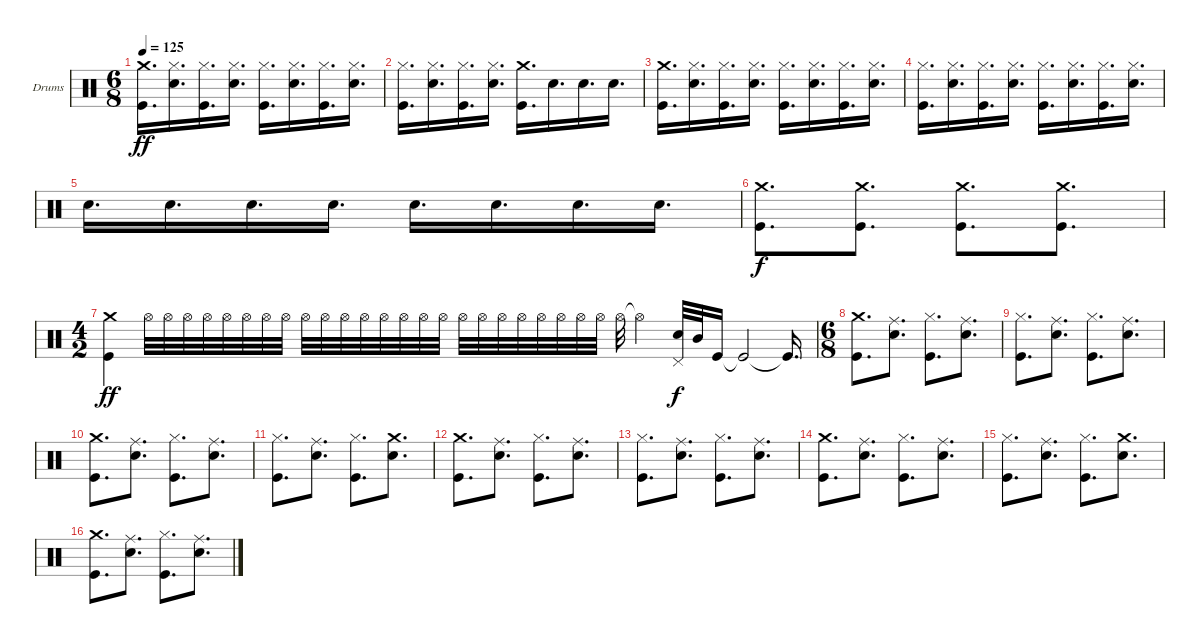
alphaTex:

\defaultSystemsLayout 4
\bracketExtendMode groupsimilarinstruments
\firstSystemTrackNameOrientation horizontal
\otherSystemsTrackNameOrientation horizontal
\track ("Drumkit" "Drums") {instrument percussion}
\staff {score}
\articulation defaults
\ts (6 8)
\tempo 125
\clef neutral
\ks c
("Kick (hit)" "Crash medium (hit)").16{d dy ff} ("Snare (hit) 2" "Hi-Hat (closed)").16{d} ("Kick (hit)" "Hi-Hat (closed)").16{d} ("Snare (hit) 2" "Hi-Hat (closed)").16{d} ("Kick (hit)" "Hi-Hat (closed)").16{d} ("Snare (hit) 2" "Hi-Hat (closed)").16{d} ("Kick (hit)" "Hi-Hat (closed)").16{d} ("Snare (hit) 2" "Hi-Hat (closed)").16{d} |
("Kick (hit)" "Hi-Hat (closed)").16{d} ("Snare (hit) 2" "Hi-Hat (closed)").16{d} ("Kick (hit)" "Hi-Hat (closed)").16{d} ("Snare (hit) 2" "Hi-Hat (closed)").16{d} ("Kick (hit)" "Crash medium (hit)").16{d} "Snare (hit) 2".16{d} "Snare (hit) 2".16{d} "Snare (hit) 2".16{d} |
("Kick (hit)" "Crash medium (hit)").16{d} ("Snare (hit) 2" "Hi-Hat (closed)").16{d} ("Kick (hit)" "Hi-Hat (closed)").16{d} ("Snare (hit) 2" "Hi-Hat (closed)").16{d} ("Kick (hit)" "Hi-Hat (closed)").16{d} ("Snare (hit) 2" "Hi-Hat (closed)").16{d} ("Kick (hit)" "Hi-Hat (closed)").16{d} ("Snare (hit) 2" "Hi-Hat (closed)").16{d} |
("Kick (hit)" "Hi-Hat (closed)").16{d} ("Snare (hit) 2" "Hi-Hat (closed)").16{d} ("Kick (hit)" "Hi-Hat (closed)").16{d} ("Snare (hit) 2" "Hi-Hat (closed)").16{d} ("Kick (hit)" "Hi-Hat (closed)").16{d} ("Snare (hit) 2" "Hi-Hat (closed)").16{d} ("Kick (hit)" "Hi-Hat (closed)").16{d} ("Snare (hit) 2" "Hi-Hat (closed)").16{d} |
"Snare (hit) 2".16{d} "Snare (hit) 2".16{d} "Snare (hit) 2".16{d} "Snare (hit) 2".16{d} "Snare (hit) 2".16{d} "Snare (hit) 2".16{d} "Snare (hit) 2".16{d} "Snare (hit) 2".16{d} |
("Kick (hit)" "Crash medium (hit)").8{d dy f} ("Kick (hit)" "Crash medium (hit)").8{d} ("Kick (hit)" "Crash medium (hit)").8{d} ("Kick (hit)" "Crash medium (hit)").8{d} |
\ts (4 2)
("Kick (hit)" "Crash medium (hit)").4{dy ff} "Hi-Hat (open)".32 "Hi-Hat (open)".32 "Hi-Hat (open)".32 "Hi-Hat (open)".32 "Hi-Hat (open)".32 "Hi-Hat (open)".32 "Hi-Hat (open)".32 "Hi-Hat (open)".32 "Hi-Hat (open)".32 "Hi-Hat (open)".32 "Hi-Hat (open)".32 "Hi-Hat (open)".32 "Hi-Hat (open)".32 "Hi-Hat (open)".32 "Hi-Hat (open)".32 "Hi-Hat (open)".32 "Hi-Hat (open)".32 "Hi-Hat (open)".32 "Hi-Hat (open)".32 "Hi-Hat (open)".32 "Hi-Hat (open)".32 "Hi-Hat (open)".32 "Hi-Hat (open)".32 "Hi-Hat (open)".32 "Hi-Hat (open)".32 "Hi-Hat (open)"{t}.4 ("Pedal Hi-Hat (hit)" "Snare (hit) 2").32{dy f} "Mid Tom (hit)".32 "Kick (hit)".16 "Kick (hit)"{t}.2 "Kick (hit)"{t}.16{d} |
\ts (6 8)
("Kick (hit)" "Crash medium (hit)").8{d} ("Snare (hit) 2" "Ride (middle)").8{d} ("Kick (hit)" "Hi-Hat (closed)").8{d} ("Snare (hit) 2" "Ride (middle)").8{d} |
("Kick (hit)" "Hi-Hat (closed)").8{d} ("Snare (hit) 2" "Ride (middle)").8{d} ("Kick (hit)" "Hi-Hat (closed)").8{d} ("Snare (hit) 2" "Ride (middle)").8{d} |
("Kick (hit)" "Crash medium (hit)").8{d} ("Snare (hit) 2" "Ride (middle)").8{d} ("Kick (hit)" "Hi-Hat (closed)").8{d} ("Snare (hit) 2" "Ride (middle)").8{d} |
("Kick (hit)" "Hi-Hat (closed)").8{d} ("Snare (hit) 2" "Ride (middle)").8{d} ("Kick (hit)" "Hi-Hat (closed)").8{d} ("Snare (hit) 2" "Crash medium (hit)").8{d} |
("Kick (hit)" "Crash medium (hit)").8{d} ("Snare (hit) 2" "Ride (middle)").8{d} ("Kick (hit)" "Hi-Hat (closed)").8{d} ("Snare (hit) 2" "Ride (middle)").8{d} |
("Kick (hit)" "Hi-Hat (closed)").8{d} ("Snare (hit) 2" "Ride (middle)").8{d} ("Kick (hit)" "Hi-Hat (closed)").8{d} ("Snare (hit) 2" "Ride (middle)").8{d} |
("Kick (hit)" "Crash medium (hit)").8{d} ("Snare (hit) 2" "Ride (middle)").8{d} ("Kick (hit)" "Hi-Hat (closed)").8{d} ("Snare (hit) 2" "Ride (middle)").8{d} |
("Kick (hit)" "Hi-Hat (closed)").8{d} ("Snare (hit) 2" "Ride (middle)").8{d} ("Kick (hit)" "Hi-Hat (closed)").8{d} ("Snare (hit) 2" "Crash medium (hit)").8{d} |
("Kick (hit)" "Crash medium (hit)").8{d} ("Snare (hit) 2" "Ride (middle)").8{d} ("Kick (hit)" "Hi-Hat (closed)").8{d} ("Snare (hit) 2" "Ride (middle)").8{d}
